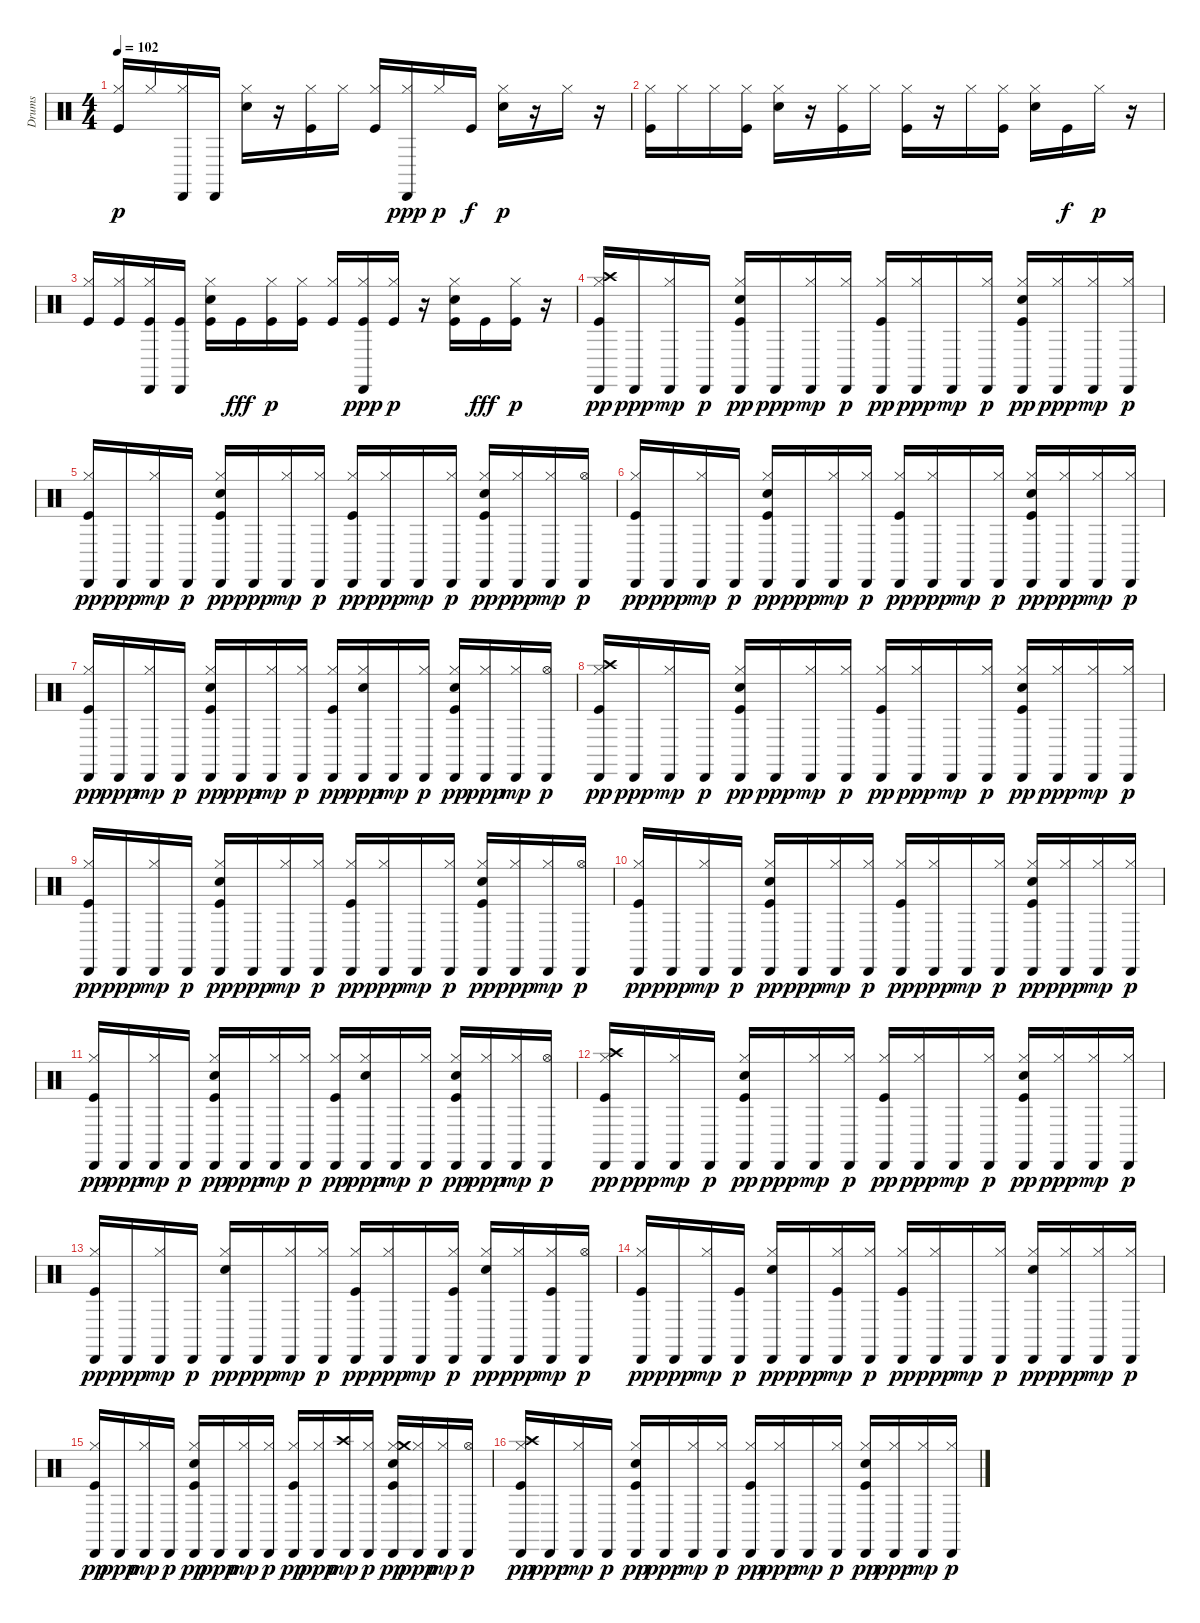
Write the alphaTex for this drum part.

\track ("Drums" "Drums") {instrument percussion}
\staff {score}
\articulation defaults
\ts (4 4)
\tempo 102
\clef neutral
\ks c
("Kick (hit)" "Hi-Hat (closed)").16{dy p} "Hi-Hat (closed)".16 ("Hi-Hat (closed)" "Cabasa (hit)").16 "Cabasa (hit)".16 ("Snare (hit) 2" "Hi-Hat (closed)").16 r.16 ("Kick (hit)" "Hi-Hat (closed)").16 "Hi-Hat (closed)".16 ("Kick (hit)" "Hi-Hat (closed)").16 ("Hi-Hat (closed)" "Cabasa (hit)").16{dy ppp} "Hi-Hat (closed)".16{dy p} "Kick (hit)".16{dy f} ("Snare (hit) 2" "Hi-Hat (closed)").16{dy p} r.16 "Hi-Hat (closed)".16 r.16 |
("Kick (hit)" "Hi-Hat (closed)").16 "Hi-Hat (closed)".16 "Hi-Hat (closed)".16 ("Kick (hit)" "Hi-Hat (closed)").16 ("Snare (hit) 2" "Hi-Hat (closed)").16 r.16 ("Kick (hit)" "Hi-Hat (closed)").16 "Hi-Hat (closed)".16 ("Kick (hit)" "Hi-Hat (closed)").16 r.16 "Hi-Hat (closed)".16 ("Kick (hit)" "Hi-Hat (closed)").16 ("Snare (hit) 2" "Hi-Hat (closed)").16 "Kick (hit)".16{dy f} "Hi-Hat (closed)".16{dy p} r.16 |
("Kick (hit)" "Hi-Hat (closed)").16 ("Kick (hit)" "Hi-Hat (closed)").16 ("Kick (hit)" "Hi-Hat (closed)" "Cabasa (hit)").16 ("Kick (hit)" "Cabasa (hit)").16 ("Kick (hit)" "Snare (hit) 2" "Hi-Hat (closed)").16 "Kick (hit)".16{dy fff} ("Kick (hit)" "Hi-Hat (closed)").16{dy p} ("Kick (hit)" "Hi-Hat (closed)").16 ("Kick (hit)" "Hi-Hat (closed)").16 ("Kick (hit)" "Hi-Hat (closed)" "Cabasa (hit)").16{dy ppp} ("Kick (hit)" "Hi-Hat (closed)").16{dy p} r.16 ("Kick (hit)" "Snare (hit) 2" "Hi-Hat (closed)").16 "Kick (hit)".16{dy fff} ("Kick (hit)" "Hi-Hat (closed)").16{dy p} r.16 |
("Kick (hit)" "Hi-Hat (closed)" "Crash high (hit)" "Cabasa (hit)").16{dy pp} "Cabasa (hit)".16{dy ppp} ("Hi-Hat (closed)" "Cabasa (hit)").16{dy mp} "Cabasa (hit)".16{dy p} ("Kick (hit)" "Snare (hit) 2" "Hi-Hat (closed)" "Cabasa (hit)").16{dy pp} "Cabasa (hit)".16{dy ppp} ("Hi-Hat (closed)" "Cabasa (hit)").16{dy mp} ("Hi-Hat (closed)" "Cabasa (hit)").16{dy p} ("Kick (hit)" "Hi-Hat (closed)" "Cabasa (hit)").16{dy pp} ("Hi-Hat (closed)" "Cabasa (hit)").16{dy ppp} "Cabasa (hit)".16{dy mp} ("Hi-Hat (closed)" "Cabasa (hit)").16{dy p} ("Kick (hit)" "Snare (hit) 2" "Hi-Hat (closed)" "Cabasa (hit)").16{dy pp} ("Hi-Hat (closed)" "Cabasa (hit)").16{dy ppp} ("Hi-Hat (closed)" "Cabasa (hit)").16{dy mp} ("Hi-Hat (closed)" "Cabasa (hit)").16{dy p} |
("Kick (hit)" "Hi-Hat (closed)" "Cabasa (hit)").16{dy pp} "Cabasa (hit)".16{dy ppp} ("Hi-Hat (closed)" "Cabasa (hit)").16{dy mp} "Cabasa (hit)".16{dy p} ("Kick (hit)" "Snare (hit) 2" "Hi-Hat (closed)" "Cabasa (hit)").16{dy pp} "Cabasa (hit)".16{dy ppp} ("Hi-Hat (closed)" "Cabasa (hit)").16{dy mp} ("Hi-Hat (closed)" "Cabasa (hit)").16{dy p} ("Kick (hit)" "Hi-Hat (closed)" "Cabasa (hit)").16{dy pp} ("Hi-Hat (closed)" "Cabasa (hit)").16{dy ppp} "Cabasa (hit)".16{dy mp} ("Hi-Hat (closed)" "Cabasa (hit)").16{dy p} ("Kick (hit)" "Snare (hit) 2" "Hi-Hat (closed)" "Cabasa (hit)").16{dy pp} ("Hi-Hat (closed)" "Cabasa (hit)").16{dy ppp} ("Hi-Hat (closed)" "Cabasa (hit)").16{dy mp} ("Hi-Hat (open)" "Cabasa (hit)").16{dy p} |
("Kick (hit)" "Hi-Hat (closed)" "Cabasa (hit)").16{dy pp} "Cabasa (hit)".16{dy ppp} ("Hi-Hat (closed)" "Cabasa (hit)").16{dy mp} "Cabasa (hit)".16{dy p} ("Kick (hit)" "Snare (hit) 2" "Hi-Hat (closed)" "Cabasa (hit)").16{dy pp} "Cabasa (hit)".16{dy ppp} ("Hi-Hat (closed)" "Cabasa (hit)").16{dy mp} ("Hi-Hat (closed)" "Cabasa (hit)").16{dy p} ("Kick (hit)" "Hi-Hat (closed)" "Cabasa (hit)").16{dy pp} ("Hi-Hat (closed)" "Cabasa (hit)").16{dy ppp} "Cabasa (hit)".16{dy mp} ("Hi-Hat (closed)" "Cabasa (hit)").16{dy p} ("Kick (hit)" "Snare (hit) 2" "Hi-Hat (closed)" "Cabasa (hit)").16{dy pp} ("Hi-Hat (closed)" "Cabasa (hit)").16{dy ppp} ("Hi-Hat (closed)" "Cabasa (hit)").16{dy mp} ("Hi-Hat (closed)" "Cabasa (hit)").16{dy p} |
("Kick (hit)" "Hi-Hat (closed)" "Cabasa (hit)").16{dy pp} "Cabasa (hit)".16{dy ppp} ("Hi-Hat (closed)" "Cabasa (hit)").16{dy mp} "Cabasa (hit)".16{dy p} ("Kick (hit)" "Snare (hit) 2" "Hi-Hat (closed)" "Cabasa (hit)").16{dy pp} "Cabasa (hit)".16{dy ppp} ("Hi-Hat (closed)" "Cabasa (hit)").16{dy mp} ("Hi-Hat (closed)" "Cabasa (hit)").16{dy p} ("Kick (hit)" "Hi-Hat (closed)" "Cabasa (hit)").16{dy pp} ("Snare (hit) 2" "Hi-Hat (closed)" "Cabasa (hit)").16{dy ppp} "Cabasa (hit)".16{dy mp} ("Hi-Hat (closed)" "Cabasa (hit)").16{dy p} ("Kick (hit)" "Snare (hit) 2" "Hi-Hat (closed)" "Cabasa (hit)").16{dy pp} ("Hi-Hat (closed)" "Cabasa (hit)").16{dy ppp} ("Hi-Hat (closed)" "Cabasa (hit)").16{dy mp} ("Hi-Hat (open)" "Cabasa (hit)").16{dy p} |
("Kick (hit)" "Hi-Hat (closed)" "Crash high (hit)" "Cabasa (hit)").16{dy pp} "Cabasa (hit)".16{dy ppp} ("Hi-Hat (closed)" "Cabasa (hit)").16{dy mp} "Cabasa (hit)".16{dy p} ("Kick (hit)" "Snare (hit) 2" "Hi-Hat (closed)" "Cabasa (hit)").16{dy pp} "Cabasa (hit)".16{dy ppp} ("Hi-Hat (closed)" "Cabasa (hit)").16{dy mp} ("Hi-Hat (closed)" "Cabasa (hit)").16{dy p} ("Kick (hit)" "Hi-Hat (closed)" "Cabasa (hit)").16{dy pp} ("Hi-Hat (closed)" "Cabasa (hit)").16{dy ppp} "Cabasa (hit)".16{dy mp} ("Hi-Hat (closed)" "Cabasa (hit)").16{dy p} ("Kick (hit)" "Snare (hit) 2" "Hi-Hat (closed)" "Cabasa (hit)").16{dy pp} ("Hi-Hat (closed)" "Cabasa (hit)").16{dy ppp} ("Hi-Hat (closed)" "Cabasa (hit)").16{dy mp} ("Hi-Hat (closed)" "Cabasa (hit)").16{dy p} |
("Kick (hit)" "Hi-Hat (closed)" "Cabasa (hit)").16{dy pp} "Cabasa (hit)".16{dy ppp} ("Hi-Hat (closed)" "Cabasa (hit)").16{dy mp} "Cabasa (hit)".16{dy p} ("Kick (hit)" "Snare (hit) 2" "Hi-Hat (closed)" "Cabasa (hit)").16{dy pp} "Cabasa (hit)".16{dy ppp} ("Hi-Hat (closed)" "Cabasa (hit)").16{dy mp} ("Hi-Hat (closed)" "Cabasa (hit)").16{dy p} ("Kick (hit)" "Hi-Hat (closed)" "Cabasa (hit)").16{dy pp} ("Hi-Hat (closed)" "Cabasa (hit)").16{dy ppp} "Cabasa (hit)".16{dy mp} ("Hi-Hat (closed)" "Cabasa (hit)").16{dy p} ("Kick (hit)" "Snare (hit) 2" "Hi-Hat (closed)" "Cabasa (hit)").16{dy pp} ("Hi-Hat (closed)" "Cabasa (hit)").16{dy ppp} ("Hi-Hat (closed)" "Cabasa (hit)").16{dy mp} ("Hi-Hat (open)" "Cabasa (hit)").16{dy p} |
("Kick (hit)" "Hi-Hat (closed)" "Cabasa (hit)").16{dy pp} "Cabasa (hit)".16{dy ppp} ("Hi-Hat (closed)" "Cabasa (hit)").16{dy mp} "Cabasa (hit)".16{dy p} ("Kick (hit)" "Snare (hit) 2" "Hi-Hat (closed)" "Cabasa (hit)").16{dy pp} "Cabasa (hit)".16{dy ppp} ("Hi-Hat (closed)" "Cabasa (hit)").16{dy mp} ("Hi-Hat (closed)" "Cabasa (hit)").16{dy p} ("Kick (hit)" "Hi-Hat (closed)" "Cabasa (hit)").16{dy pp} ("Hi-Hat (closed)" "Cabasa (hit)").16{dy ppp} "Cabasa (hit)".16{dy mp} ("Hi-Hat (closed)" "Cabasa (hit)").16{dy p} ("Kick (hit)" "Snare (hit) 2" "Hi-Hat (closed)" "Cabasa (hit)").16{dy pp} ("Hi-Hat (closed)" "Cabasa (hit)").16{dy ppp} ("Hi-Hat (closed)" "Cabasa (hit)").16{dy mp} ("Hi-Hat (closed)" "Cabasa (hit)").16{dy p} |
("Kick (hit)" "Hi-Hat (closed)" "Cabasa (hit)").16{dy pp} "Cabasa (hit)".16{dy ppp} ("Hi-Hat (closed)" "Cabasa (hit)").16{dy mp} "Cabasa (hit)".16{dy p} ("Kick (hit)" "Snare (hit) 2" "Hi-Hat (closed)" "Cabasa (hit)").16{dy pp} "Cabasa (hit)".16{dy ppp} ("Hi-Hat (closed)" "Cabasa (hit)").16{dy mp} ("Hi-Hat (closed)" "Cabasa (hit)").16{dy p} ("Kick (hit)" "Hi-Hat (closed)" "Cabasa (hit)").16{dy pp} ("Snare (hit) 2" "Hi-Hat (closed)" "Cabasa (hit)").16{dy ppp} "Cabasa (hit)".16{dy mp} ("Hi-Hat (closed)" "Cabasa (hit)").16{dy p} ("Kick (hit)" "Snare (hit) 2" "Hi-Hat (closed)" "Cabasa (hit)").16{dy pp} ("Hi-Hat (closed)" "Cabasa (hit)").16{dy ppp} ("Hi-Hat (closed)" "Cabasa (hit)").16{dy mp} ("Hi-Hat (open)" "Cabasa (hit)").16{dy p} |
("Kick (hit)" "Hi-Hat (closed)" "Crash high (hit)" "Cabasa (hit)").16{dy pp} "Cabasa (hit)".16{dy ppp} ("Hi-Hat (closed)" "Cabasa (hit)").16{dy mp} "Cabasa (hit)".16{dy p} ("Kick (hit)" "Snare (hit) 2" "Hi-Hat (closed)" "Cabasa (hit)").16{dy pp} "Cabasa (hit)".16{dy ppp} ("Hi-Hat (closed)" "Cabasa (hit)").16{dy mp} ("Hi-Hat (closed)" "Cabasa (hit)").16{dy p} ("Kick (hit)" "Hi-Hat (closed)" "Cabasa (hit)").16{dy pp} ("Hi-Hat (closed)" "Cabasa (hit)").16{dy ppp} "Cabasa (hit)".16{dy mp} ("Hi-Hat (closed)" "Cabasa (hit)").16{dy p} ("Kick (hit)" "Snare (hit) 2" "Hi-Hat (closed)" "Cabasa (hit)").16{dy pp} ("Hi-Hat (closed)" "Cabasa (hit)").16{dy ppp} ("Hi-Hat (closed)" "Cabasa (hit)").16{dy mp} ("Hi-Hat (closed)" "Cabasa (hit)").16{dy p} |
("Kick (hit)" "Hi-Hat (closed)" "Cabasa (hit)").16{dy pp} "Cabasa (hit)".16{dy ppp} ("Hi-Hat (closed)" "Cabasa (hit)").16{dy mp} "Cabasa (hit)".16{dy p} ("Snare (hit) 2" "Hi-Hat (closed)" "Cabasa (hit)").16{dy pp} "Cabasa (hit)".16{dy ppp} ("Hi-Hat (closed)" "Cabasa (hit)").16{dy mp} ("Hi-Hat (closed)" "Cabasa (hit)").16{dy p} ("Kick (hit)" "Hi-Hat (closed)" "Cabasa (hit)").16{dy pp} ("Hi-Hat (closed)" "Cabasa (hit)").16{dy ppp} "Cabasa (hit)".16{dy mp} ("Kick (hit)" "Hi-Hat (closed)" "Cabasa (hit)").16{dy p} ("Snare (hit) 2" "Hi-Hat (closed)" "Cabasa (hit)").16{dy pp} ("Hi-Hat (closed)" "Cabasa (hit)").16{dy ppp} ("Kick (hit)" "Hi-Hat (closed)" "Cabasa (hit)").16{dy mp} ("Hi-Hat (open)" "Cabasa (hit)").16{dy p} |
("Kick (hit)" "Hi-Hat (closed)" "Cabasa (hit)").16{dy pp} "Cabasa (hit)".16{dy ppp} ("Hi-Hat (closed)" "Cabasa (hit)").16{dy mp} ("Kick (hit)" "Cabasa (hit)").16{dy p} ("Snare (hit) 2" "Hi-Hat (closed)" "Cabasa (hit)").16{dy pp} "Cabasa (hit)".16{dy ppp} ("Kick (hit)" "Hi-Hat (closed)" "Cabasa (hit)").16{dy mp} ("Hi-Hat (closed)" "Cabasa (hit)").16{dy p} ("Kick (hit)" "Hi-Hat (closed)" "Cabasa (hit)").16{dy pp} ("Hi-Hat (closed)" "Cabasa (hit)").16{dy ppp} "Cabasa (hit)".16{dy mp} ("Hi-Hat (closed)" "Cabasa (hit)").16{dy p} ("Snare (hit) 2" "Hi-Hat (closed)" "Cabasa (hit)").16{dy pp} ("Hi-Hat (closed)" "Cabasa (hit)").16{dy ppp} ("Hi-Hat (closed)" "Cabasa (hit)").16{dy mp} ("Hi-Hat (closed)" "Cabasa (hit)").16{dy p} |
("Kick (hit)" "Hi-Hat (closed)" "Cabasa (hit)").16{dy pp} "Cabasa (hit)".16{dy ppp} ("Hi-Hat (closed)" "Cabasa (hit)").16{dy mp} "Cabasa (hit)".16{dy p} ("Kick (hit)" "Snare (hit) 2" "Hi-Hat (closed)" "Cabasa (hit)").16{dy pp} "Cabasa (hit)".16{dy ppp} ("Hi-Hat (closed)" "Cabasa (hit)").16{dy mp} ("Hi-Hat (closed)" "Cabasa (hit)").16{dy p} ("Kick (hit)" "Hi-Hat (closed)" "Cabasa (hit)").16{dy pp} ("Hi-Hat (closed)" "Cabasa (hit)").16{dy ppp} ("Crash high (hit)" "Cabasa (hit)").16{dy mp} ("Hi-Hat (closed)" "Cabasa (hit)").16{dy p} ("Kick (hit)" "Snare (hit) 2" "Hi-Hat (closed)" "Crash medium (hit)" "Cabasa (hit)").16{dy pp} ("Hi-Hat (closed)" "Cabasa (hit)").16{dy ppp} ("Hi-Hat (closed)" "Cabasa (hit)").16{dy mp} ("Hi-Hat (open)" "Cabasa (hit)").16{dy p} |
("Kick (hit)" "Hi-Hat (closed)" "Crash high (hit)" "Cabasa (hit)").16{dy pp} "Cabasa (hit)".16{dy ppp} ("Hi-Hat (closed)" "Cabasa (hit)").16{dy mp} "Cabasa (hit)".16{dy p} ("Kick (hit)" "Snare (hit) 2" "Hi-Hat (closed)" "Cabasa (hit)").16{dy pp} "Cabasa (hit)".16{dy ppp} ("Hi-Hat (closed)" "Cabasa (hit)").16{dy mp} ("Hi-Hat (closed)" "Cabasa (hit)").16{dy p} ("Kick (hit)" "Hi-Hat (closed)" "Cabasa (hit)").16{dy pp} ("Hi-Hat (closed)" "Cabasa (hit)").16{dy ppp} "Cabasa (hit)".16{dy mp} ("Hi-Hat (closed)" "Cabasa (hit)").16{dy p} ("Kick (hit)" "Snare (hit) 2" "Hi-Hat (closed)" "Cabasa (hit)").16{dy pp} ("Hi-Hat (closed)" "Cabasa (hit)").16{dy ppp} ("Hi-Hat (closed)" "Cabasa (hit)").16{dy mp} ("Hi-Hat (closed)" "Cabasa (hit)").16{dy p}
